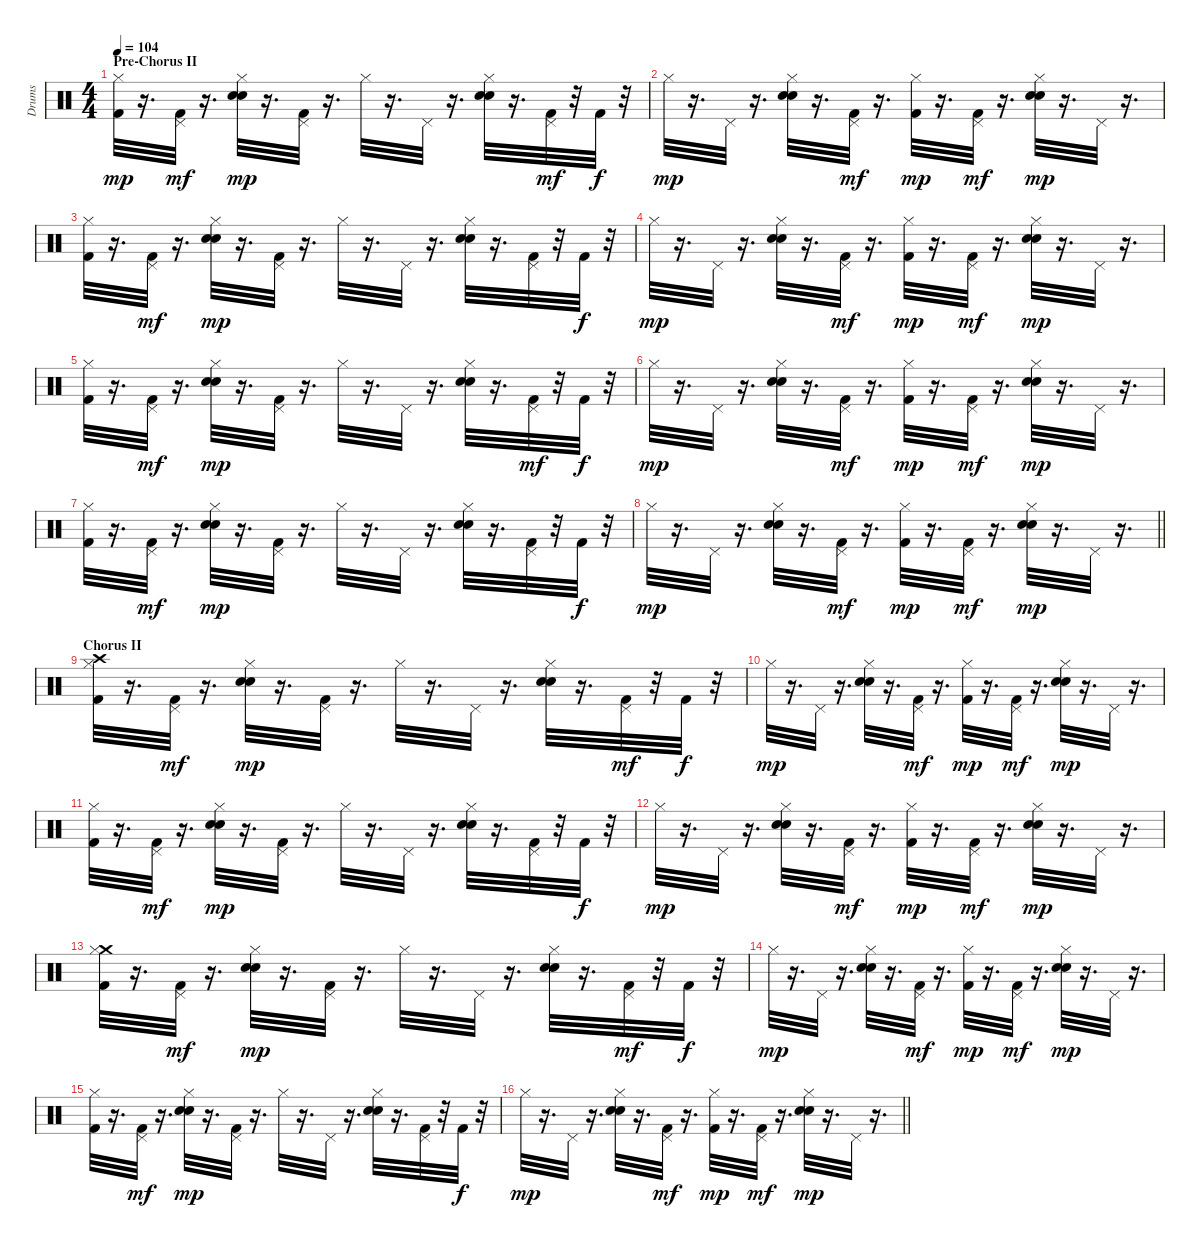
\track ("Drums" "Drums") {instrument percussion}
\staff {score}
\articulation defaults
\ts (4 4)
\section ("" "Pre-Chorus II")
\tempo 104
\clef neutral
\ks c
("Hi-Hat (closed)" "Kick (hit) 2").32{dy mp} r.16{d} ("Pedal Hi-Hat (hit)" "Kick (hit) 2").32{dy mf} r.16{d} ("Hi-Hat (closed)" "Electric Snare (hit)" "Hand Clap (hit)").32{dy mp} r.16{d} ("Pedal Hi-Hat (hit)" "Kick (hit) 2").32 r.16{d} "Hi-Hat (closed)".32 r.16{d} "Pedal Hi-Hat (hit)".32 r.16{d} ("Hi-Hat (closed)" "Electric Snare (hit)" "Hand Clap (hit)").32 r.16{d} ("Pedal Hi-Hat (hit)" "Kick (hit) 2").32{dy mf} r.32 "Kick (hit) 2".32{dy f} r.32 |
"Hi-Hat (closed)".32{dy mp} r.16{d} "Pedal Hi-Hat (hit)".32 r.16{d} ("Hi-Hat (closed)" "Electric Snare (hit)" "Hand Clap (hit)").32 r.16{d} ("Pedal Hi-Hat (hit)" "Kick (hit) 2").32{dy mf} r.16{d} ("Hi-Hat (closed)" "Kick (hit) 2").32{dy mp} r.16{d} ("Pedal Hi-Hat (hit)" "Kick (hit) 2").32{dy mf} r.16{d} ("Hi-Hat (closed)" "Electric Snare (hit)" "Hand Clap (hit)").32{dy mp} r.16{d} "Pedal Hi-Hat (hit)".32 r.16{d} |
("Hi-Hat (closed)" "Kick (hit) 2").32 r.16{d} ("Pedal Hi-Hat (hit)" "Kick (hit) 2").32{dy mf} r.16{d} ("Hi-Hat (closed)" "Electric Snare (hit)" "Hand Clap (hit)").32{dy mp} r.16{d} ("Pedal Hi-Hat (hit)" "Kick (hit) 2").32 r.16{d} "Hi-Hat (closed)".32 r.16{d} "Pedal Hi-Hat (hit)".32 r.16{d} ("Hi-Hat (closed)" "Electric Snare (hit)" "Hand Clap (hit)").32 r.16{d} ("Pedal Hi-Hat (hit)" "Kick (hit) 2").32 r.32 "Kick (hit) 2".32{dy f} r.32 |
"Hi-Hat (closed)".32{dy mp} r.16{d} "Pedal Hi-Hat (hit)".32 r.16{d} ("Hi-Hat (closed)" "Electric Snare (hit)" "Hand Clap (hit)").32 r.16{d} ("Pedal Hi-Hat (hit)" "Kick (hit) 2").32{dy mf} r.16{d} ("Hi-Hat (closed)" "Kick (hit) 2").32{dy mp} r.16{d} ("Pedal Hi-Hat (hit)" "Kick (hit) 2").32{dy mf} r.16{d} ("Hi-Hat (closed)" "Electric Snare (hit)" "Hand Clap (hit)").32{dy mp} r.16{d} "Pedal Hi-Hat (hit)".32 r.16{d} |
("Hi-Hat (closed)" "Kick (hit) 2").32 r.16{d} ("Pedal Hi-Hat (hit)" "Kick (hit) 2").32{dy mf} r.16{d} ("Hi-Hat (closed)" "Electric Snare (hit)" "Hand Clap (hit)").32{dy mp} r.16{d} ("Pedal Hi-Hat (hit)" "Kick (hit) 2").32 r.16{d} "Hi-Hat (closed)".32 r.16{d} "Pedal Hi-Hat (hit)".32 r.16{d} ("Hi-Hat (closed)" "Electric Snare (hit)" "Hand Clap (hit)").32 r.16{d} ("Pedal Hi-Hat (hit)" "Kick (hit) 2").32{dy mf} r.32 "Kick (hit) 2".32{dy f} r.32 |
"Hi-Hat (closed)".32{dy mp} r.16{d} "Pedal Hi-Hat (hit)".32 r.16{d} ("Hi-Hat (closed)" "Electric Snare (hit)" "Hand Clap (hit)").32 r.16{d} ("Pedal Hi-Hat (hit)" "Kick (hit) 2").32{dy mf} r.16{d} ("Hi-Hat (closed)" "Kick (hit) 2").32{dy mp} r.16{d} ("Pedal Hi-Hat (hit)" "Kick (hit) 2").32{dy mf} r.16{d} ("Hi-Hat (closed)" "Electric Snare (hit)" "Hand Clap (hit)").32{dy mp} r.16{d} "Pedal Hi-Hat (hit)".32 r.16{d} |
("Hi-Hat (closed)" "Kick (hit) 2").32 r.16{d} ("Pedal Hi-Hat (hit)" "Kick (hit) 2").32{dy mf} r.16{d} ("Hi-Hat (closed)" "Electric Snare (hit)" "Hand Clap (hit)").32{dy mp} r.16{d} ("Pedal Hi-Hat (hit)" "Kick (hit) 2").32 r.16{d} "Hi-Hat (closed)".32 r.16{d} "Pedal Hi-Hat (hit)".32 r.16{d} ("Hi-Hat (closed)" "Electric Snare (hit)" "Hand Clap (hit)").32 r.16{d} ("Pedal Hi-Hat (hit)" "Kick (hit) 2").32 r.32 "Kick (hit) 2".32{dy f} r.32 |
\barLineRight lightlight "Hi-Hat (closed)".32{dy mp}
r.16{d} "Pedal Hi-Hat (hit)".32 r.16{d} ("Hi-Hat (closed)" "Electric Snare (hit)" "Hand Clap (hit)").32 r.16{d} ("Pedal Hi-Hat (hit)" "Kick (hit) 2").32{dy mf} r.16{d} ("Hi-Hat (closed)" "Kick (hit) 2").32{dy mp} r.16{d} ("Pedal Hi-Hat (hit)" "Kick (hit) 2").32{dy mf} r.16{d} ("Hi-Hat (closed)" "Electric Snare (hit)" "Hand Clap (hit)").32{dy mp} r.16{d} "Pedal Hi-Hat (hit)".32 r.16{d} |
\section ("" "Chorus II")
("Crash high (hit)" "Hi-Hat (closed)" "Kick (hit) 2").32 r.16{d} ("Pedal Hi-Hat (hit)" "Kick (hit) 2").32{dy mf} r.16{d} ("Hi-Hat (closed)" "Electric Snare (hit)" "Hand Clap (hit)").32{dy mp} r.16{d} ("Pedal Hi-Hat (hit)" "Kick (hit) 2").32 r.16{d} "Hi-Hat (closed)".32 r.16{d} "Pedal Hi-Hat (hit)".32 r.16{d} ("Hi-Hat (closed)" "Electric Snare (hit)" "Hand Clap (hit)").32 r.16{d} ("Pedal Hi-Hat (hit)" "Kick (hit) 2").32{dy mf} r.32 "Kick (hit) 2".32{dy f} r.32 |
"Hi-Hat (closed)".32{dy mp} r.16{d} "Pedal Hi-Hat (hit)".32 r.16{d} ("Hi-Hat (closed)" "Electric Snare (hit)" "Hand Clap (hit)").32 r.16{d} ("Pedal Hi-Hat (hit)" "Kick (hit) 2").32{dy mf} r.16{d} ("Hi-Hat (closed)" "Kick (hit) 2").32{dy mp} r.16{d} ("Pedal Hi-Hat (hit)" "Kick (hit) 2").32{dy mf} r.16{d} ("Hi-Hat (closed)" "Electric Snare (hit)" "Hand Clap (hit)").32{dy mp} r.16{d} "Pedal Hi-Hat (hit)".32 r.16{d} |
("Hi-Hat (closed)" "Kick (hit) 2").32 r.16{d} ("Pedal Hi-Hat (hit)" "Kick (hit) 2").32{dy mf} r.16{d} ("Hi-Hat (closed)" "Electric Snare (hit)" "Hand Clap (hit)").32{dy mp} r.16{d} ("Pedal Hi-Hat (hit)" "Kick (hit) 2").32 r.16{d} "Hi-Hat (closed)".32 r.16{d} "Pedal Hi-Hat (hit)".32 r.16{d} ("Hi-Hat (closed)" "Electric Snare (hit)" "Hand Clap (hit)").32 r.16{d} ("Pedal Hi-Hat (hit)" "Kick (hit) 2").32 r.32 "Kick (hit) 2".32{dy f} r.32 |
"Hi-Hat (closed)".32{dy mp} r.16{d} "Pedal Hi-Hat (hit)".32 r.16{d} ("Hi-Hat (closed)" "Electric Snare (hit)" "Hand Clap (hit)").32 r.16{d} ("Pedal Hi-Hat (hit)" "Kick (hit) 2").32{dy mf} r.16{d} ("Hi-Hat (closed)" "Kick (hit) 2").32{dy mp} r.16{d} ("Pedal Hi-Hat (hit)" "Kick (hit) 2").32{dy mf} r.16{d} ("Hi-Hat (closed)" "Electric Snare (hit)" "Hand Clap (hit)").32{dy mp} r.16{d} "Pedal Hi-Hat (hit)".32 r.16{d} |
("Crash medium (hit)" "Hi-Hat (closed)" "Kick (hit) 2").32 r.16{d} ("Pedal Hi-Hat (hit)" "Kick (hit) 2").32{dy mf} r.16{d} ("Hi-Hat (closed)" "Electric Snare (hit)" "Hand Clap (hit)").32{dy mp} r.16{d} ("Pedal Hi-Hat (hit)" "Kick (hit) 2").32 r.16{d} "Hi-Hat (closed)".32 r.16{d} "Pedal Hi-Hat (hit)".32 r.16{d} ("Hi-Hat (closed)" "Electric Snare (hit)" "Hand Clap (hit)").32 r.16{d} ("Pedal Hi-Hat (hit)" "Kick (hit) 2").32{dy mf} r.32 "Kick (hit) 2".32{dy f} r.32 |
"Hi-Hat (closed)".32{dy mp} r.16{d} "Pedal Hi-Hat (hit)".32 r.16{d} ("Hi-Hat (closed)" "Electric Snare (hit)" "Hand Clap (hit)").32 r.16{d} ("Pedal Hi-Hat (hit)" "Kick (hit) 2").32{dy mf} r.16{d} ("Hi-Hat (closed)" "Kick (hit) 2").32{dy mp} r.16{d} ("Pedal Hi-Hat (hit)" "Kick (hit) 2").32{dy mf} r.16{d} ("Hi-Hat (closed)" "Electric Snare (hit)" "Hand Clap (hit)").32{dy mp} r.16{d} "Pedal Hi-Hat (hit)".32 r.16{d} |
("Hi-Hat (closed)" "Kick (hit) 2").32 r.16{d} ("Pedal Hi-Hat (hit)" "Kick (hit) 2").32{dy mf} r.16{d} ("Hi-Hat (closed)" "Electric Snare (hit)" "Hand Clap (hit)").32{dy mp} r.16{d} ("Pedal Hi-Hat (hit)" "Kick (hit) 2").32 r.16{d} "Hi-Hat (closed)".32 r.16{d} "Pedal Hi-Hat (hit)".32 r.16{d} ("Hi-Hat (closed)" "Electric Snare (hit)" "Hand Clap (hit)").32 r.16{d} ("Pedal Hi-Hat (hit)" "Kick (hit) 2").32 r.32 "Kick (hit) 2".32{dy f} r.32 |
\barLineRight lightlight "Hi-Hat (closed)".32{dy mp}
r.16{d} "Pedal Hi-Hat (hit)".32 r.16{d} ("Hi-Hat (closed)" "Electric Snare (hit)" "Hand Clap (hit)").32 r.16{d} ("Pedal Hi-Hat (hit)" "Kick (hit) 2").32{dy mf} r.16{d} ("Hi-Hat (closed)" "Kick (hit) 2").32{dy mp} r.16{d} ("Pedal Hi-Hat (hit)" "Kick (hit) 2").32{dy mf} r.16{d} ("Hi-Hat (closed)" "Electric Snare (hit)" "Hand Clap (hit)").32{dy mp} r.16{d} "Pedal Hi-Hat (hit)".32 r.16{d}
